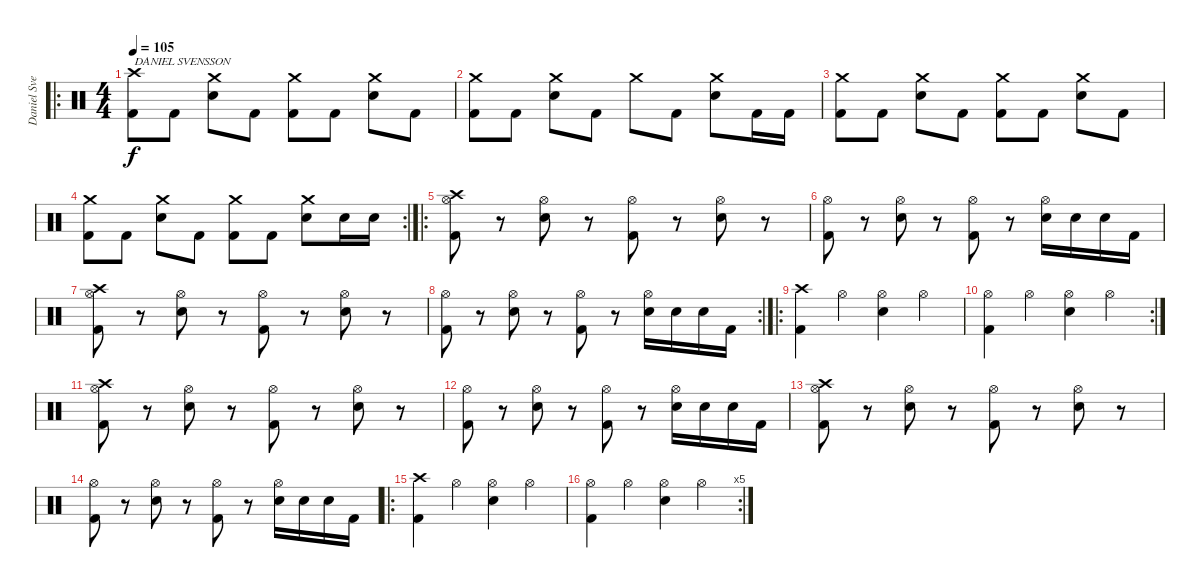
\track ("Daniel Svensson" "Daniel Sve") {instrument percussion}
\staff {score}
\articulation defaults
\ro
\ts (4 4)
\tempo 105
\clef neutral
\ks c
("Crash high (hit)" "Kick (hit) 2").8{txt "DANIEL SVENSSON" dy f} "Kick (hit) 2".8 ("Crash medium (hit)" "Snare (hit) 2").8 "Kick (hit) 2".8 ("Crash medium (hit)" "Kick (hit) 2").8 "Kick (hit) 2".8 ("Crash medium (hit)" "Snare (hit) 2").8 "Kick (hit) 2".8 |
("Crash medium (hit)" "Kick (hit) 2").8 "Kick (hit) 2".8 ("Crash medium (hit)" "Snare (hit) 2").8 "Kick (hit) 2".8 "Crash medium (hit)".8 "Kick (hit) 2".8 ("Crash medium (hit)" "Snare (hit) 2").8 "Kick (hit) 2".16 "Kick (hit) 2".16 |
("Crash medium (hit)" "Kick (hit) 2").8 "Kick (hit) 2".8 ("Crash medium (hit)" "Snare (hit) 2").8 "Kick (hit) 2".8 ("Crash medium (hit)" "Kick (hit) 2").8 "Kick (hit) 2".8 ("Crash medium (hit)" "Snare (hit) 2").8 "Kick (hit) 2".8 |
\rc 2
("Crash medium (hit)" "Kick (hit) 2").8 "Kick (hit) 2".8 ("Crash medium (hit)" "Snare (hit) 2").8 "Kick (hit) 2".8 ("Crash medium (hit)" "Kick (hit) 2").8 "Kick (hit) 2".8 ("Crash medium (hit)" "Snare (hit) 2").8 "Snare (hit) 2".16 "Snare (hit) 2".16 |
\ro
("Crash high (hit)" "Hi-Hat (open)" "Kick (hit) 2").8 r.8 ("Hi-Hat (open)" "Snare (hit) 2").8 r.8 ("Hi-Hat (open)" "Kick (hit) 2").8 r.8 ("Hi-Hat (open)" "Snare (hit) 2").8 r.8 |
("Hi-Hat (open)" "Kick (hit) 2").8 r.8 ("Hi-Hat (open)" "Snare (hit) 2").8 r.8 ("Hi-Hat (open)" "Kick (hit) 2").8 r.8 ("Hi-Hat (open)" "Snare (hit) 2").16 "Snare (hit) 2".16 "Snare (hit) 2".16 "Kick (hit) 2".16 |
("Crash high (hit)" "Hi-Hat (open)" "Kick (hit) 2").8 r.8 ("Hi-Hat (open)" "Snare (hit) 2").8 r.8 ("Hi-Hat (open)" "Kick (hit) 2").8 r.8 ("Hi-Hat (open)" "Snare (hit) 2").8 r.8 |
\rc 2
("Hi-Hat (open)" "Kick (hit) 2").8 r.8 ("Hi-Hat (open)" "Snare (hit) 2").8 r.8 ("Hi-Hat (open)" "Kick (hit) 2").8 r.8 ("Hi-Hat (open)" "Snare (hit) 2").16 "Snare (hit) 2".16 "Snare (hit) 2".16 "Kick (hit) 2".16 |
\ro
("Kick (hit) 2" "Crash high (hit)").4 "Hi-Hat (open)".4 ("Electric Snare (hit)" "Hi-Hat (open)").4 "Hi-Hat (open)".4 |
\rc 2
("Kick (hit) 2" "Hi-Hat (open)").4 "Hi-Hat (open)".4 ("Electric Snare (hit)" "Hi-Hat (open)").4 "Hi-Hat (open)".4 |
("Crash high (hit)" "Hi-Hat (open)" "Kick (hit) 2").8 r.8 ("Hi-Hat (open)" "Snare (hit) 2").8 r.8 ("Hi-Hat (open)" "Kick (hit) 2").8 r.8 ("Hi-Hat (open)" "Snare (hit) 2").8 r.8 |
("Hi-Hat (open)" "Kick (hit) 2").8 r.8 ("Hi-Hat (open)" "Snare (hit) 2").8 r.8 ("Hi-Hat (open)" "Kick (hit) 2").8 r.8 ("Hi-Hat (open)" "Snare (hit) 2").16 "Snare (hit) 2".16 "Snare (hit) 2".16 "Kick (hit) 2".16 |
("Crash high (hit)" "Hi-Hat (open)" "Kick (hit) 2").8 r.8 ("Hi-Hat (open)" "Snare (hit) 2").8 r.8 ("Hi-Hat (open)" "Kick (hit) 2").8 r.8 ("Hi-Hat (open)" "Snare (hit) 2").8 r.8 |
("Hi-Hat (open)" "Kick (hit) 2").8 r.8 ("Hi-Hat (open)" "Snare (hit) 2").8 r.8 ("Hi-Hat (open)" "Kick (hit) 2").8 r.8 ("Hi-Hat (open)" "Snare (hit) 2").16 "Snare (hit) 2".16 "Snare (hit) 2".16 "Kick (hit) 2".16 |
\ro
("Kick (hit) 2" "Crash high (hit)").4 "Hi-Hat (open)".4 ("Electric Snare (hit)" "Hi-Hat (open)").4 "Hi-Hat (open)".4 |
\rc 5
("Hi-Hat (open)" "Kick (hit) 2").4 "Hi-Hat (open)".4 ("Electric Snare (hit)" "Hi-Hat (open)").4 "Hi-Hat (open)".4
